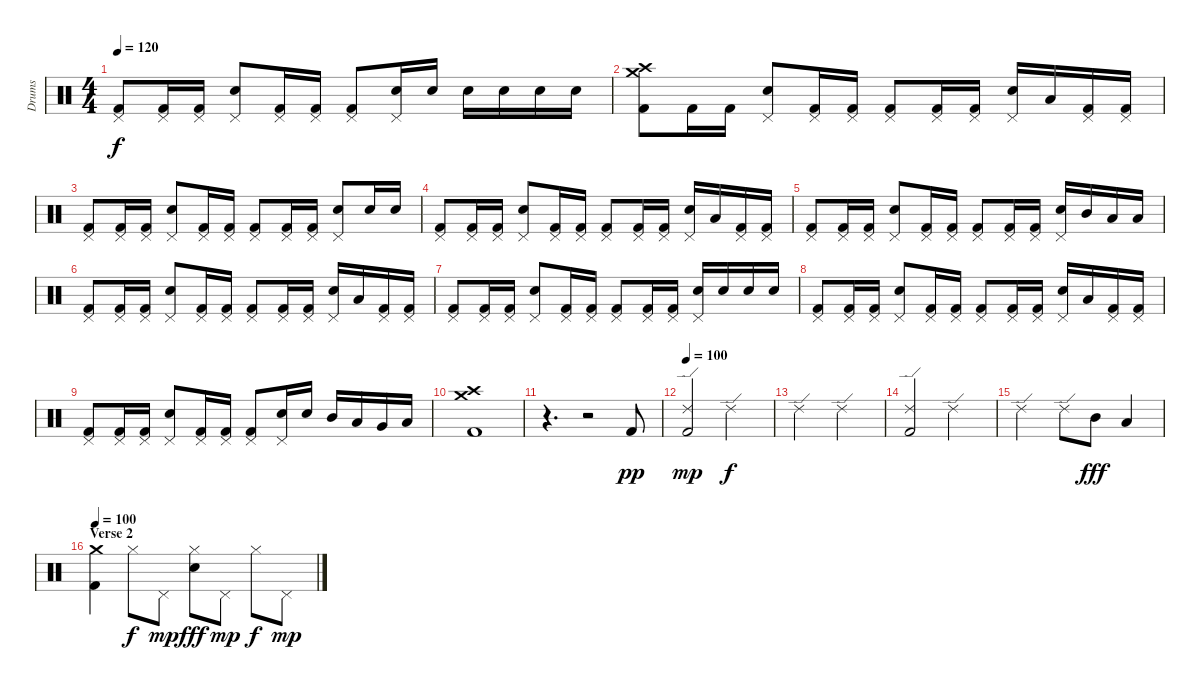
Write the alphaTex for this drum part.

\track ("Drums" "Drums") {instrument percussion}
\staff {score}
\articulation defaults
\ts (4 4)
\tempo 120
\clef neutral
\ks c
("Pedal Hi-Hat (hit)" "Kick (hit) 2").8{dy f} ("Pedal Hi-Hat (hit)" "Kick (hit) 2").16 ("Pedal Hi-Hat (hit)" "Kick (hit) 2").16 ("Pedal Hi-Hat (hit)" "Electric Snare (hit)").8 ("Pedal Hi-Hat (hit)" "Kick (hit) 2").16 ("Pedal Hi-Hat (hit)" "Kick (hit) 2").16 ("Pedal Hi-Hat (hit)" "Kick (hit) 2").8 ("Pedal Hi-Hat (hit)" "Electric Snare (hit)").16 "Electric Snare (hit)".16 "Electric Snare (hit)".16 "Electric Snare (hit)".16 "Electric Snare (hit)".16 "Electric Snare (hit)".16 |
("Crash medium (hit)" "Crash high (hit)" "Kick (hit) 2").8 "Kick (hit) 2".16 "Kick (hit) 2".16 ("Pedal Hi-Hat (hit)" "Electric Snare (hit)").8 ("Pedal Hi-Hat (hit)" "Kick (hit) 2").16 ("Pedal Hi-Hat (hit)" "Kick (hit) 2").16 ("Pedal Hi-Hat (hit)" "Kick (hit) 2").8 ("Pedal Hi-Hat (hit)" "Kick (hit) 2").16 ("Pedal Hi-Hat (hit)" "Kick (hit) 2").16 ("Pedal Hi-Hat (hit)" "Electric Snare (hit)").16 "Low Tom (hit)".16 ("Pedal Hi-Hat (hit)" "Kick (hit) 2").16 ("Pedal Hi-Hat (hit)" "Kick (hit) 2").16 |
("Pedal Hi-Hat (hit)" "Kick (hit) 2").8 ("Pedal Hi-Hat (hit)" "Kick (hit) 2").16 ("Pedal Hi-Hat (hit)" "Kick (hit) 2").16 ("Pedal Hi-Hat (hit)" "Electric Snare (hit)").8 ("Pedal Hi-Hat (hit)" "Kick (hit) 2").16 ("Pedal Hi-Hat (hit)" "Kick (hit) 2").16 ("Pedal Hi-Hat (hit)" "Kick (hit) 2").8 ("Pedal Hi-Hat (hit)" "Kick (hit) 2").16 ("Pedal Hi-Hat (hit)" "Kick (hit) 2").16 ("Pedal Hi-Hat (hit)" "Electric Snare (hit)").8 "Electric Snare (hit)".16 "Electric Snare (hit)".16 |
("Pedal Hi-Hat (hit)" "Kick (hit) 2").8 ("Pedal Hi-Hat (hit)" "Kick (hit) 2").16 ("Pedal Hi-Hat (hit)" "Kick (hit) 2").16 ("Pedal Hi-Hat (hit)" "Electric Snare (hit)").8 ("Pedal Hi-Hat (hit)" "Kick (hit) 2").16 ("Pedal Hi-Hat (hit)" "Kick (hit) 2").16 ("Pedal Hi-Hat (hit)" "Kick (hit) 2").8 ("Pedal Hi-Hat (hit)" "Kick (hit) 2").16 ("Pedal Hi-Hat (hit)" "Kick (hit) 2").16 ("Pedal Hi-Hat (hit)" "Electric Snare (hit)").16 "Low Tom (hit)".16 ("Pedal Hi-Hat (hit)" "Kick (hit) 2").16 ("Pedal Hi-Hat (hit)" "Kick (hit) 2").16 |
("Pedal Hi-Hat (hit)" "Kick (hit) 2").8 ("Pedal Hi-Hat (hit)" "Kick (hit) 2").16 ("Pedal Hi-Hat (hit)" "Kick (hit) 2").16 ("Pedal Hi-Hat (hit)" "Electric Snare (hit)").8 ("Pedal Hi-Hat (hit)" "Kick (hit) 2").16 ("Pedal Hi-Hat (hit)" "Kick (hit) 2").16 ("Pedal Hi-Hat (hit)" "Kick (hit) 2").8 ("Pedal Hi-Hat (hit)" "Kick (hit) 2").16 ("Pedal Hi-Hat (hit)" "Kick (hit) 2").16 ("Pedal Hi-Hat (hit)" "Electric Snare (hit)").16 "Mid Tom (hit)".16 "Low Tom (hit)".16 "Low Tom (hit)".16 |
("Pedal Hi-Hat (hit)" "Kick (hit) 2").8 ("Pedal Hi-Hat (hit)" "Kick (hit) 2").16 ("Pedal Hi-Hat (hit)" "Kick (hit) 2").16 ("Pedal Hi-Hat (hit)" "Electric Snare (hit)").8 ("Pedal Hi-Hat (hit)" "Kick (hit) 2").16 ("Pedal Hi-Hat (hit)" "Kick (hit) 2").16 ("Pedal Hi-Hat (hit)" "Kick (hit) 2").8 ("Pedal Hi-Hat (hit)" "Kick (hit) 2").16 ("Pedal Hi-Hat (hit)" "Kick (hit) 2").16 ("Pedal Hi-Hat (hit)" "Electric Snare (hit)").16 "Low Tom (hit)".16 ("Pedal Hi-Hat (hit)" "Kick (hit) 2").16 ("Pedal Hi-Hat (hit)" "Kick (hit) 2").16 |
("Pedal Hi-Hat (hit)" "Kick (hit) 2").8 ("Pedal Hi-Hat (hit)" "Kick (hit) 2").16 ("Pedal Hi-Hat (hit)" "Kick (hit) 2").16 ("Pedal Hi-Hat (hit)" "Electric Snare (hit)").8 ("Pedal Hi-Hat (hit)" "Kick (hit) 2").16 ("Pedal Hi-Hat (hit)" "Kick (hit) 2").16 ("Pedal Hi-Hat (hit)" "Kick (hit) 2").8 ("Pedal Hi-Hat (hit)" "Kick (hit) 2").16 ("Pedal Hi-Hat (hit)" "Kick (hit) 2").16 ("Pedal Hi-Hat (hit)" "Electric Snare (hit)").16 "Electric Snare (hit)".16 "Electric Snare (hit)".16 "Electric Snare (hit)".16 |
("Pedal Hi-Hat (hit)" "Kick (hit) 2").8 ("Pedal Hi-Hat (hit)" "Kick (hit) 2").16 ("Pedal Hi-Hat (hit)" "Kick (hit) 2").16 ("Pedal Hi-Hat (hit)" "Electric Snare (hit)").8 ("Pedal Hi-Hat (hit)" "Kick (hit) 2").16 ("Pedal Hi-Hat (hit)" "Kick (hit) 2").16 ("Pedal Hi-Hat (hit)" "Kick (hit) 2").8 ("Pedal Hi-Hat (hit)" "Kick (hit) 2").16 ("Pedal Hi-Hat (hit)" "Kick (hit) 2").16 ("Pedal Hi-Hat (hit)" "Electric Snare (hit)").16 "Low Tom (hit)".16 ("Pedal Hi-Hat (hit)" "Kick (hit) 2").16 ("Pedal Hi-Hat (hit)" "Kick (hit) 2").16 |
("Pedal Hi-Hat (hit)" "Kick (hit) 2").8 ("Pedal Hi-Hat (hit)" "Kick (hit) 2").16 ("Pedal Hi-Hat (hit)" "Kick (hit) 2").16 ("Pedal Hi-Hat (hit)" "Electric Snare (hit)").8 ("Pedal Hi-Hat (hit)" "Kick (hit) 2").16 ("Pedal Hi-Hat (hit)" "Kick (hit) 2").16 ("Pedal Hi-Hat (hit)" "Kick (hit) 2").8 ("Pedal Hi-Hat (hit)" "Electric Snare (hit)").16 "Electric Snare (hit)".16 "Mid Tom (hit)".16 "Low Tom (hit)".16 "Very Low Tom (hit)".16 "Low Floor Tom (hit)".16 |
("Crash medium (hit)" "Crash high (hit)" "Kick (hit) 2").1 |
r.4{d} r.2 "Kick (hit) 2".8{dy pp} |
\tempo 100
("Ride (edge) 2" "Kick (hit) 2").2{dy mp} "Ride (edge) 2".2{dy f} |
"Ride (edge) 2".2 "Ride (edge) 2".2 |
("Ride (edge) 2" "Kick (hit) 2").2 "Ride (edge) 2".2 |
"Ride (edge) 2".2 "Ride (edge) 2".8 "Mid Tom (hit)".8{dy fff} "Low Tom (hit)".4 |
\section ("" "Verse 2")
\tempo 100
("Crash medium (hit)" "Kick (hit) 2").4 "Hi-Hat (closed)".8{dy f} "Pedal Hi-Hat (hit)".8{dy mp} ("Hi-Hat (closed)" "Electric Snare (hit)").8{dy fff} "Pedal Hi-Hat (hit)".8{dy mp} "Hi-Hat (closed)".8{dy f} "Pedal Hi-Hat (hit)".8{dy mp}
